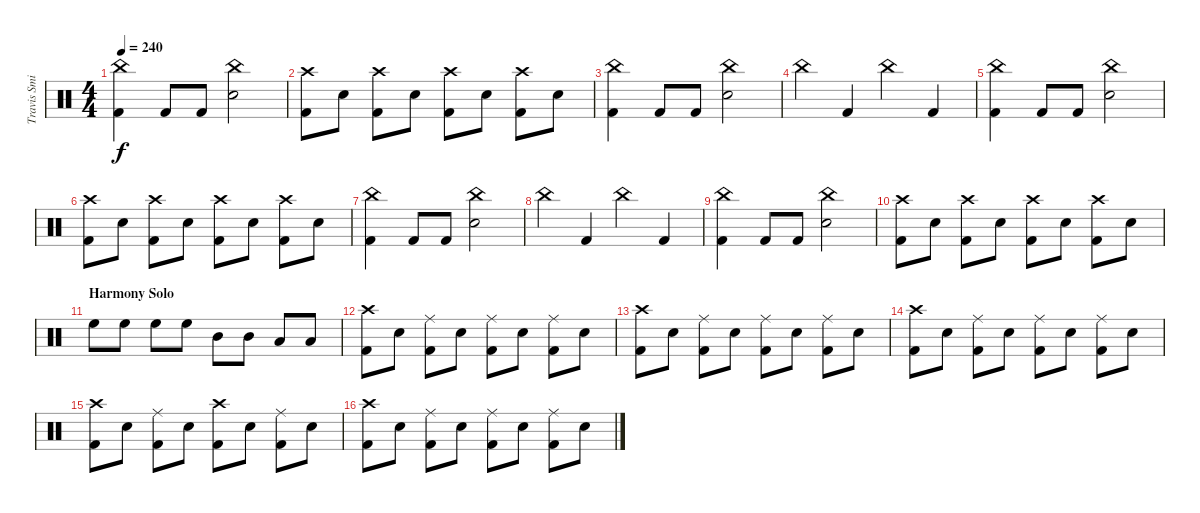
\track ("Travis Smith (Drums)" "Travis Smi") {instrument percussion}
\staff {score}
\articulation defaults
\ts (4 4)
\tempo 240
\clef neutral
\ks c
("Kick (hit) 2" "China (hit)").4{dy f} "Kick (hit) 2".8 "Kick (hit) 2".8 ("Snare (hit) 2" "China (hit)").2 |
("Kick (hit) 2" "Crash high (hit)").8 "Snare (hit) 2".8 ("Kick (hit) 2" "Crash high (hit)").8 "Snare (hit) 2".8 ("Kick (hit) 2" "Crash high (hit)").8 "Snare (hit) 2".8 ("Kick (hit) 2" "Crash high (hit)").8 "Snare (hit) 2".8 |
("Kick (hit) 2" "China (hit)").4 "Kick (hit) 2".8 "Kick (hit) 2".8 ("Snare (hit) 2" "China (hit)").2 |
"China (hit)".4 "Kick (hit) 2".4 "China (hit)".4 "Kick (hit) 2".4 |
("Kick (hit) 2" "China (hit)").4 "Kick (hit) 2".8 "Kick (hit) 2".8 ("Snare (hit) 2" "China (hit)").2 |
("Kick (hit) 2" "Crash high (hit)").8 "Snare (hit) 2".8 ("Kick (hit) 2" "Crash high (hit)").8 "Snare (hit) 2".8 ("Kick (hit) 2" "Crash high (hit)").8 "Snare (hit) 2".8 ("Kick (hit) 2" "Crash high (hit)").8 "Snare (hit) 2".8 |
("Kick (hit) 2" "China (hit)").4 "Kick (hit) 2".8 "Kick (hit) 2".8 ("Snare (hit) 2" "China (hit)").2 |
"China (hit)".4 "Kick (hit) 2".4 "China (hit)".4 "Kick (hit) 2".4 |
("Kick (hit) 2" "China (hit)").4 "Kick (hit) 2".8 "Kick (hit) 2".8 ("Snare (hit) 2" "China (hit)").2 |
("Kick (hit) 2" "Crash high (hit)").8 "Snare (hit) 2".8 ("Kick (hit) 2" "Crash high (hit)").8 "Snare (hit) 2".8 ("Kick (hit) 2" "Crash high (hit)").8 "Snare (hit) 2".8 ("Kick (hit) 2" "Crash high (hit)").8 "Snare (hit) 2".8 |
\section ("" "Harmony Solo")
"High Floor Tom (hit)".8 "High Floor Tom (hit)".8 "High Floor Tom (hit)".8 "High Floor Tom (hit)".8 "Mid Tom (hit)".8 "Mid Tom (hit)".8 "Low Tom (hit)".8 "Low Tom (hit)".8 |
("Kick (hit) 2" "Crash high (hit)").8 "Snare (hit) 2".8 ("Kick (hit) 2" "Ride (middle)").8 "Snare (hit) 2".8 ("Kick (hit) 2" "Ride (middle)").8 "Snare (hit) 2".8 ("Kick (hit) 2" "Ride (middle)").8 "Snare (hit) 2".8 |
("Kick (hit) 2" "Crash high (hit)").8 "Snare (hit) 2".8 ("Kick (hit) 2" "Ride (middle)").8 "Snare (hit) 2".8 ("Kick (hit) 2" "Ride (middle)").8 "Snare (hit) 2".8 ("Kick (hit) 2" "Ride (middle)").8 "Snare (hit) 2".8 |
("Kick (hit) 2" "Crash high (hit)").8 "Snare (hit) 2".8 ("Kick (hit) 2" "Ride (middle)").8 "Snare (hit) 2".8 ("Kick (hit) 2" "Ride (middle)").8 "Snare (hit) 2".8 ("Kick (hit) 2" "Ride (middle)").8 "Snare (hit) 2".8 |
("Kick (hit) 2" "Crash high (hit)").8 "Snare (hit) 2".8 ("Kick (hit) 2" "Ride (middle)").8 "Snare (hit) 2".8 ("Kick (hit) 2" "Crash high (hit)").8 "Snare (hit) 2".8 ("Kick (hit) 2" "Ride (middle)").8 "Snare (hit) 2".8 |
("Kick (hit) 2" "Crash high (hit)").8 "Snare (hit) 2".8 ("Kick (hit) 2" "Ride (middle)").8 "Snare (hit) 2".8 ("Kick (hit) 2" "Ride (middle)").8 "Snare (hit) 2".8 ("Kick (hit) 2" "Ride (middle)").8 "Snare (hit) 2".8
